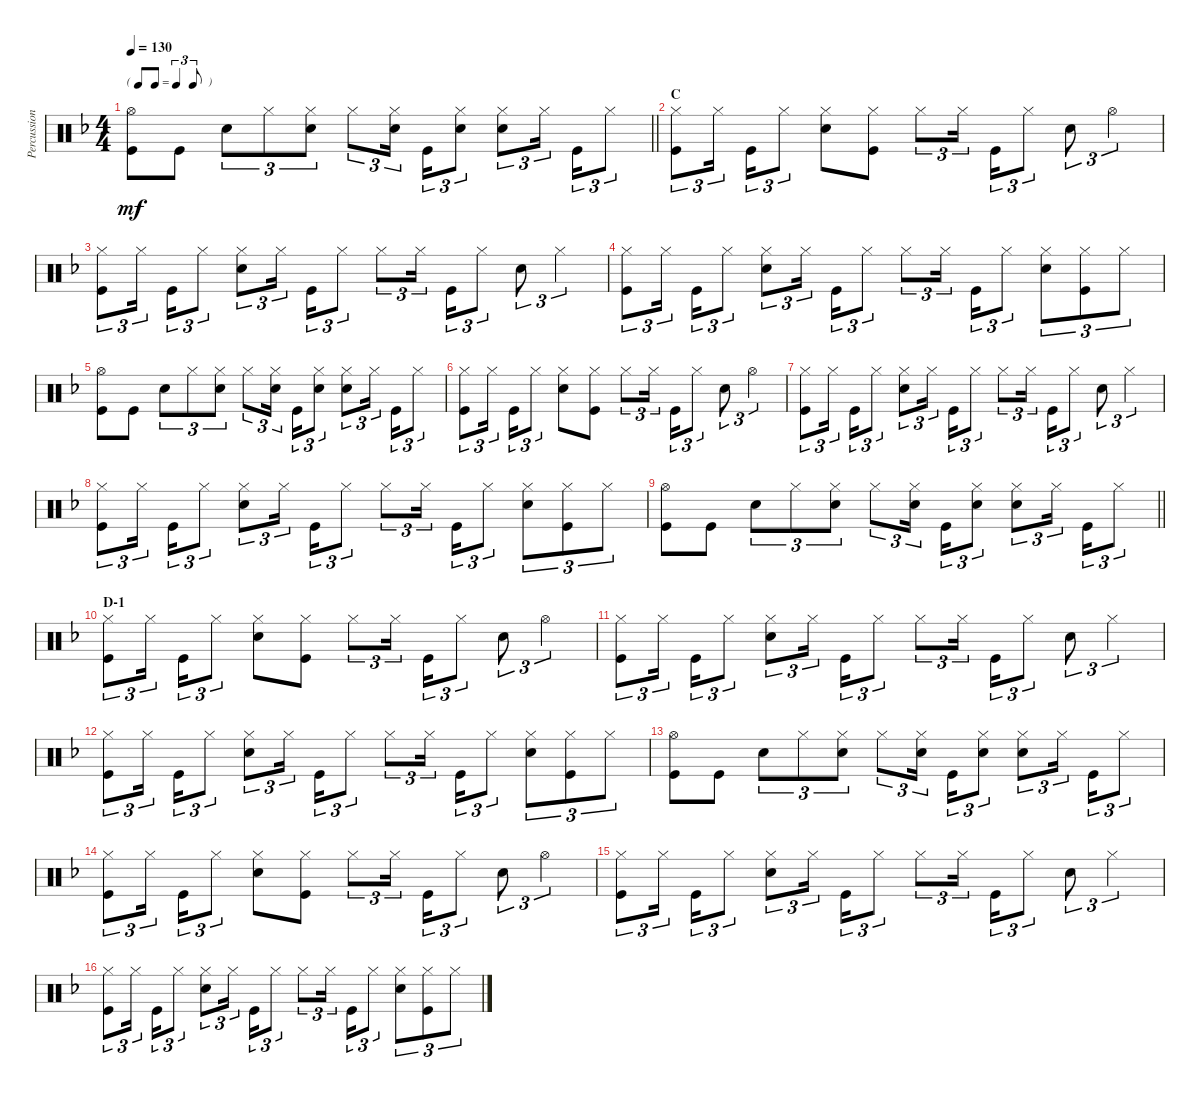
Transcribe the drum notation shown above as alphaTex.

\track ("Percussion I (Tainaka Ritsu)" "Percussion") {instrument percussion}
\staff {score}
\articulation defaults
\ts (4 4)
\tf triplet8th
\tempo 130
\clef neutral
\barLineRight lightlight
\ks f
("Hi-Hat (open)" "Kick (hit)").8{dy mf} "Kick (hit)".8 "Snare (hit) 2".8{tu (3 2)} "Hi-Hat (closed)".8{tu (3 2)} ("Hi-Hat (closed)" "Snare (hit) 2").8{tu (3 2)} "Hi-Hat (closed)".8{tu (3 2)} ("Hi-Hat (closed)" "Snare (hit) 2").16{tu (3 2) beam splitsecondary} "Kick (hit)".16{tu (3 2)} ("Hi-Hat (closed)" "Snare (hit) 2").8{tu (3 2)} ("Hi-Hat (closed)" "Snare (hit) 2").8{tu (3 2)} "Hi-Hat (closed)".16{tu (3 2) beam splitsecondary} "Kick (hit)".16{tu (3 2)} "Hi-Hat (closed)".8{tu (3 2)} |
\section ("" "C")
("Hi-Hat (closed)" "Kick (hit)").8{tu (3 2)} "Hi-Hat (closed)".16{tu (3 2) beam splitsecondary} "Kick (hit)".16{tu (3 2)} "Hi-Hat (closed)".8{tu (3 2)} ("Hi-Hat (closed)" "Snare (hit) 2").8 ("Hi-Hat (closed)" "Kick (hit)").8 "Hi-Hat (closed)".8{tu (3 2)} "Hi-Hat (closed)".16{tu (3 2) beam splitsecondary} "Kick (hit)".16{tu (3 2)} "Hi-Hat (closed)".8{tu (3 2)} "Snare (hit) 2".8{tu (3 2)} "Hi-Hat (open)".4{tu (3 2)} |
("Hi-Hat (closed)" "Kick (hit)").8{tu (3 2)} "Hi-Hat (closed)".16{tu (3 2) beam splitsecondary} "Kick (hit)".16{tu (3 2)} "Hi-Hat (closed)".8{tu (3 2)} ("Hi-Hat (closed)" "Snare (hit) 2").8{tu (3 2)} "Hi-Hat (closed)".16{tu (3 2) beam splitsecondary} "Kick (hit)".16{tu (3 2)} "Hi-Hat (closed)".8{tu (3 2)} "Hi-Hat (closed)".8{tu (3 2)} "Hi-Hat (closed)".16{tu (3 2) beam splitsecondary} "Kick (hit)".16{tu (3 2)} "Hi-Hat (closed)".8{tu (3 2)} "Snare (hit) 2".8{tu (3 2)} "Hi-Hat (closed)".4{tu (3 2)} |
("Hi-Hat (closed)" "Kick (hit)").8{tu (3 2)} "Hi-Hat (closed)".16{tu (3 2) beam splitsecondary} "Kick (hit)".16{tu (3 2)} "Hi-Hat (closed)".8{tu (3 2)} ("Hi-Hat (closed)" "Snare (hit) 2").8{tu (3 2)} "Hi-Hat (closed)".16{tu (3 2) beam splitsecondary} "Kick (hit)".16{tu (3 2)} "Hi-Hat (closed)".8{tu (3 2)} "Hi-Hat (closed)".8{tu (3 2)} "Hi-Hat (closed)".16{tu (3 2) beam splitsecondary} "Kick (hit)".16{tu (3 2)} "Hi-Hat (closed)".8{tu (3 2)} ("Hi-Hat (closed)" "Snare (hit) 2").8{tu (3 2)} ("Hi-Hat (closed)" "Kick (hit)").8{tu (3 2)} "Hi-Hat (closed)".8{tu (3 2)} |
("Hi-Hat (open)" "Kick (hit)").8 "Kick (hit)".8 "Snare (hit) 2".8{tu (3 2)} "Hi-Hat (closed)".8{tu (3 2)} ("Hi-Hat (closed)" "Snare (hit) 2").8{tu (3 2)} "Hi-Hat (closed)".8{tu (3 2)} ("Hi-Hat (closed)" "Snare (hit) 2").16{tu (3 2) beam splitsecondary} "Kick (hit)".16{tu (3 2)} ("Hi-Hat (closed)" "Snare (hit) 2").8{tu (3 2)} ("Hi-Hat (closed)" "Snare (hit) 2").8{tu (3 2)} "Hi-Hat (closed)".16{tu (3 2) beam splitsecondary} "Kick (hit)".16{tu (3 2)} "Hi-Hat (closed)".8{tu (3 2)} |
("Hi-Hat (closed)" "Kick (hit)").8{tu (3 2)} "Hi-Hat (closed)".16{tu (3 2) beam splitsecondary} "Kick (hit)".16{tu (3 2)} "Hi-Hat (closed)".8{tu (3 2)} ("Hi-Hat (closed)" "Snare (hit) 2").8 ("Hi-Hat (closed)" "Kick (hit)").8 "Hi-Hat (closed)".8{tu (3 2)} "Hi-Hat (closed)".16{tu (3 2) beam splitsecondary} "Kick (hit)".16{tu (3 2)} "Hi-Hat (closed)".8{tu (3 2)} "Snare (hit) 2".8{tu (3 2)} "Hi-Hat (open)".4{tu (3 2)} |
("Hi-Hat (closed)" "Kick (hit)").8{tu (3 2)} "Hi-Hat (closed)".16{tu (3 2) beam splitsecondary} "Kick (hit)".16{tu (3 2)} "Hi-Hat (closed)".8{tu (3 2)} ("Hi-Hat (closed)" "Snare (hit) 2").8{tu (3 2)} "Hi-Hat (closed)".16{tu (3 2) beam splitsecondary} "Kick (hit)".16{tu (3 2)} "Hi-Hat (closed)".8{tu (3 2)} "Hi-Hat (closed)".8{tu (3 2)} "Hi-Hat (closed)".16{tu (3 2) beam splitsecondary} "Kick (hit)".16{tu (3 2)} "Hi-Hat (closed)".8{tu (3 2)} "Snare (hit) 2".8{tu (3 2)} "Hi-Hat (closed)".4{tu (3 2)} |
("Hi-Hat (closed)" "Kick (hit)").8{tu (3 2)} "Hi-Hat (closed)".16{tu (3 2) beam splitsecondary} "Kick (hit)".16{tu (3 2)} "Hi-Hat (closed)".8{tu (3 2)} ("Hi-Hat (closed)" "Snare (hit) 2").8{tu (3 2)} "Hi-Hat (closed)".16{tu (3 2) beam splitsecondary} "Kick (hit)".16{tu (3 2)} "Hi-Hat (closed)".8{tu (3 2)} "Hi-Hat (closed)".8{tu (3 2)} "Hi-Hat (closed)".16{tu (3 2) beam splitsecondary} "Kick (hit)".16{tu (3 2)} "Hi-Hat (closed)".8{tu (3 2)} ("Hi-Hat (closed)" "Snare (hit) 2").8{tu (3 2)} ("Hi-Hat (closed)" "Kick (hit)").8{tu (3 2)} "Hi-Hat (closed)".8{tu (3 2)} |
\barLineRight lightlight
("Hi-Hat (open)" "Kick (hit)").8 "Kick (hit)".8 "Snare (hit) 2".8{tu (3 2)} "Hi-Hat (closed)".8{tu (3 2)} ("Hi-Hat (closed)" "Snare (hit) 2").8{tu (3 2)} "Hi-Hat (closed)".8{tu (3 2)} ("Hi-Hat (closed)" "Snare (hit) 2").16{tu (3 2) beam splitsecondary} "Kick (hit)".16{tu (3 2)} ("Hi-Hat (closed)" "Snare (hit) 2").8{tu (3 2)} ("Hi-Hat (closed)" "Snare (hit) 2").8{tu (3 2)} "Hi-Hat (closed)".16{tu (3 2) beam splitsecondary} "Kick (hit)".16{tu (3 2)} "Hi-Hat (closed)".8{tu (3 2)} |
\section ("" "D-1")
("Hi-Hat (closed)" "Kick (hit)").8{tu (3 2)} "Hi-Hat (closed)".16{tu (3 2) beam splitsecondary} "Kick (hit)".16{tu (3 2)} "Hi-Hat (closed)".8{tu (3 2)} ("Hi-Hat (closed)" "Snare (hit) 2").8 ("Hi-Hat (closed)" "Kick (hit)").8 "Hi-Hat (closed)".8{tu (3 2)} "Hi-Hat (closed)".16{tu (3 2) beam splitsecondary} "Kick (hit)".16{tu (3 2)} "Hi-Hat (closed)".8{tu (3 2)} "Snare (hit) 2".8{tu (3 2)} "Hi-Hat (open)".4{tu (3 2)} |
("Hi-Hat (closed)" "Kick (hit)").8{tu (3 2)} "Hi-Hat (closed)".16{tu (3 2) beam splitsecondary} "Kick (hit)".16{tu (3 2)} "Hi-Hat (closed)".8{tu (3 2)} ("Hi-Hat (closed)" "Snare (hit) 2").8{tu (3 2)} "Hi-Hat (closed)".16{tu (3 2) beam splitsecondary} "Kick (hit)".16{tu (3 2)} "Hi-Hat (closed)".8{tu (3 2)} "Hi-Hat (closed)".8{tu (3 2)} "Hi-Hat (closed)".16{tu (3 2) beam splitsecondary} "Kick (hit)".16{tu (3 2)} "Hi-Hat (closed)".8{tu (3 2)} "Snare (hit) 2".8{tu (3 2)} "Hi-Hat (closed)".4{tu (3 2)} |
("Hi-Hat (closed)" "Kick (hit)").8{tu (3 2)} "Hi-Hat (closed)".16{tu (3 2) beam splitsecondary} "Kick (hit)".16{tu (3 2)} "Hi-Hat (closed)".8{tu (3 2)} ("Hi-Hat (closed)" "Snare (hit) 2").8{tu (3 2)} "Hi-Hat (closed)".16{tu (3 2) beam splitsecondary} "Kick (hit)".16{tu (3 2)} "Hi-Hat (closed)".8{tu (3 2)} "Hi-Hat (closed)".8{tu (3 2)} "Hi-Hat (closed)".16{tu (3 2) beam splitsecondary} "Kick (hit)".16{tu (3 2)} "Hi-Hat (closed)".8{tu (3 2)} ("Hi-Hat (closed)" "Snare (hit) 2").8{tu (3 2)} ("Hi-Hat (closed)" "Kick (hit)").8{tu (3 2)} "Hi-Hat (closed)".8{tu (3 2)} |
("Hi-Hat (open)" "Kick (hit)").8 "Kick (hit)".8 "Snare (hit) 2".8{tu (3 2)} "Hi-Hat (closed)".8{tu (3 2)} ("Hi-Hat (closed)" "Snare (hit) 2").8{tu (3 2)} "Hi-Hat (closed)".8{tu (3 2)} ("Hi-Hat (closed)" "Snare (hit) 2").16{tu (3 2) beam splitsecondary} "Kick (hit)".16{tu (3 2)} ("Hi-Hat (closed)" "Snare (hit) 2").8{tu (3 2)} ("Hi-Hat (closed)" "Snare (hit) 2").8{tu (3 2)} "Hi-Hat (closed)".16{tu (3 2) beam splitsecondary} "Kick (hit)".16{tu (3 2)} "Hi-Hat (closed)".8{tu (3 2)} |
("Hi-Hat (closed)" "Kick (hit)").8{tu (3 2)} "Hi-Hat (closed)".16{tu (3 2) beam splitsecondary} "Kick (hit)".16{tu (3 2)} "Hi-Hat (closed)".8{tu (3 2)} ("Hi-Hat (closed)" "Snare (hit) 2").8 ("Hi-Hat (closed)" "Kick (hit)").8 "Hi-Hat (closed)".8{tu (3 2)} "Hi-Hat (closed)".16{tu (3 2) beam splitsecondary} "Kick (hit)".16{tu (3 2)} "Hi-Hat (closed)".8{tu (3 2)} "Snare (hit) 2".8{tu (3 2)} "Hi-Hat (open)".4{tu (3 2)} |
("Hi-Hat (closed)" "Kick (hit)").8{tu (3 2)} "Hi-Hat (closed)".16{tu (3 2) beam splitsecondary} "Kick (hit)".16{tu (3 2)} "Hi-Hat (closed)".8{tu (3 2)} ("Hi-Hat (closed)" "Snare (hit) 2").8{tu (3 2)} "Hi-Hat (closed)".16{tu (3 2) beam splitsecondary} "Kick (hit)".16{tu (3 2)} "Hi-Hat (closed)".8{tu (3 2)} "Hi-Hat (closed)".8{tu (3 2)} "Hi-Hat (closed)".16{tu (3 2) beam splitsecondary} "Kick (hit)".16{tu (3 2)} "Hi-Hat (closed)".8{tu (3 2)} "Snare (hit) 2".8{tu (3 2)} "Hi-Hat (closed)".4{tu (3 2)} |
("Hi-Hat (closed)" "Kick (hit)").8{tu (3 2)} "Hi-Hat (closed)".16{tu (3 2) beam splitsecondary} "Kick (hit)".16{tu (3 2)} "Hi-Hat (closed)".8{tu (3 2)} ("Hi-Hat (closed)" "Snare (hit) 2").8{tu (3 2)} "Hi-Hat (closed)".16{tu (3 2) beam splitsecondary} "Kick (hit)".16{tu (3 2)} "Hi-Hat (closed)".8{tu (3 2)} "Hi-Hat (closed)".8{tu (3 2)} "Hi-Hat (closed)".16{tu (3 2) beam splitsecondary} "Kick (hit)".16{tu (3 2)} "Hi-Hat (closed)".8{tu (3 2)} ("Hi-Hat (closed)" "Snare (hit) 2").8{tu (3 2)} ("Hi-Hat (closed)" "Kick (hit)").8{tu (3 2)} "Hi-Hat (closed)".8{tu (3 2)}
